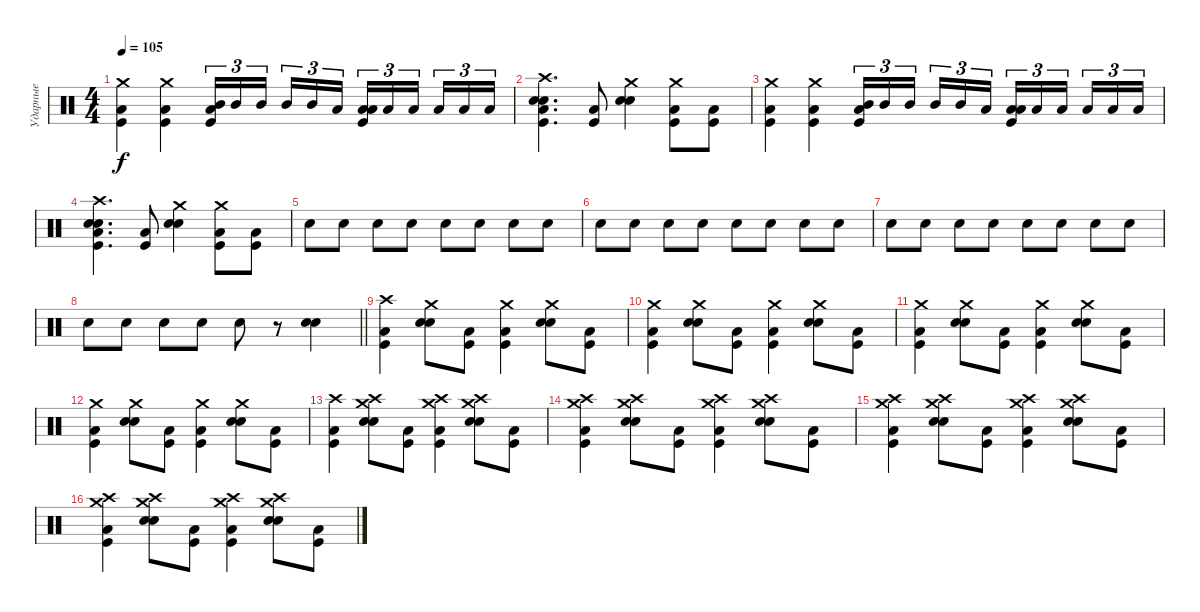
\track ("Ударные" "Ударные") {instrument percussion}
\staff {score}
\articulation defaults
\ts (4 4)
\tempo 105
\clef neutral
\ks c
("Crash medium (hit)" "Low Tom (hit)" "Kick (hit)").4{dy f} ("Crash medium (hit)" "Low Tom (hit)" "Kick (hit)").4 ("Mid Tom (hit)" "Low Tom (hit)" "Kick (hit)").16{tu (3 2)} "Mid Tom (hit)".16{tu (3 2)} "Mid Tom (hit)".16{tu (3 2) beam splitsecondary} "Mid Tom (hit)".16{tu (3 2)} "Mid Tom (hit)".16{tu (3 2)} "Low Tom (hit)".16{tu (3 2)} ("Low Tom (hit)" "Kick (hit)" "Low Tom (hit)").16{tu (3 2)} "Low Tom (hit)".16{tu (3 2)} "Low Tom (hit)".16{tu (3 2) beam splitsecondary} "Low Tom (hit)".16{tu (3 2)} "Low Tom (hit)".16{tu (3 2)} "Low Tom (hit)".16{tu (3 2)} |
("Crash high (hit)" "Electric Snare (hit)" "Snare (hit) 2" "Low Tom (hit)" "Kick (hit)").4{d} ("Low Tom (hit)" "Kick (hit)").8 ("Crash medium (hit)" "Electric Snare (hit)" "Snare (hit) 2").4 ("Crash medium (hit)" "Low Tom (hit)" "Kick (hit)").8 ("Low Tom (hit)" "Kick (hit)").8 |
("Crash medium (hit)" "Low Tom (hit)" "Kick (hit)").4 ("Crash medium (hit)" "Low Tom (hit)" "Kick (hit)").4 ("Mid Tom (hit)" "Low Tom (hit)" "Kick (hit)").16{tu (3 2)} "Mid Tom (hit)".16{tu (3 2)} "Mid Tom (hit)".16{tu (3 2) beam splitsecondary} "Mid Tom (hit)".16{tu (3 2)} "Mid Tom (hit)".16{tu (3 2)} "Low Tom (hit)".16{tu (3 2)} ("Low Tom (hit)" "Kick (hit)" "Low Tom (hit)").16{tu (3 2)} "Low Tom (hit)".16{tu (3 2)} "Low Tom (hit)".16{tu (3 2) beam splitsecondary} "Low Tom (hit)".16{tu (3 2)} "Low Tom (hit)".16{tu (3 2)} "Low Tom (hit)".16{tu (3 2)} |
("Crash high (hit)" "Electric Snare (hit)" "Snare (hit) 2" "Low Tom (hit)" "Kick (hit)").4{d} ("Low Tom (hit)" "Kick (hit)").8 ("Crash medium (hit)" "Electric Snare (hit)" "Snare (hit) 2").4 ("Crash medium (hit)" "Low Tom (hit)" "Kick (hit)").8 ("Low Tom (hit)" "Kick (hit)").8 |
"Snare (hit) 2".8{volume 9} "Snare (hit) 2".8{volume 16} "Snare (hit) 2".8 "Snare (hit) 2".8 "Snare (hit) 2".8 "Snare (hit) 2".8 "Snare (hit) 2".8 "Snare (hit) 2".8 |
"Snare (hit) 2".8 "Snare (hit) 2".8 "Snare (hit) 2".8 "Snare (hit) 2".8 "Snare (hit) 2".8 "Snare (hit) 2".8 "Snare (hit) 2".8 "Snare (hit) 2".8 |
"Snare (hit) 2".8 "Snare (hit) 2".8 "Snare (hit) 2".8 "Snare (hit) 2".8 "Snare (hit) 2".8 "Snare (hit) 2".8 "Snare (hit) 2".8 "Snare (hit) 2".8 |
\barLineRight lightlight "Snare (hit) 2".8 "Snare (hit) 2".8 "Snare (hit) 2".8 "Snare (hit) 2".8 "Snare (hit) 2".8
r.8 ("Electric Snare (hit)" "Snare (hit) 2").4 |
("Crash high (hit)" "Low Tom (hit)" "Kick (hit)").4 ("Crash medium (hit)" "Electric Snare (hit)" "Snare (hit) 2").8 ("Low Tom (hit)" "Kick (hit)").8 ("Crash medium (hit)" "Low Tom (hit)" "Kick (hit)").4 ("Crash medium (hit)" "Electric Snare (hit)" "Snare (hit) 2").8 ("Low Tom (hit)" "Kick (hit)").8 |
("Crash medium (hit)" "Low Tom (hit)" "Kick (hit)").4 ("Crash medium (hit)" "Electric Snare (hit)" "Snare (hit) 2").8 ("Low Tom (hit)" "Kick (hit)").8 ("Crash medium (hit)" "Low Tom (hit)" "Kick (hit)").4 ("Crash medium (hit)" "Electric Snare (hit)" "Snare (hit) 2").8 ("Low Tom (hit)" "Kick (hit)").8 |
("Crash medium (hit)" "Low Tom (hit)" "Kick (hit)").4 ("Crash medium (hit)" "Electric Snare (hit)" "Snare (hit) 2").8 ("Low Tom (hit)" "Kick (hit)").8 ("Crash medium (hit)" "Low Tom (hit)" "Kick (hit)").4 ("Crash medium (hit)" "Electric Snare (hit)" "Snare (hit) 2").8 ("Low Tom (hit)" "Kick (hit)").8 |
("Crash medium (hit)" "Low Tom (hit)" "Kick (hit)").4 ("Crash medium (hit)" "Electric Snare (hit)" "Snare (hit) 2").8 ("Low Tom (hit)" "Kick (hit)").8 ("Crash medium (hit)" "Low Tom (hit)" "Kick (hit)").4 ("Crash medium (hit)" "Electric Snare (hit)" "Snare (hit) 2").8 ("Low Tom (hit)" "Kick (hit)").8 |
("Crash high (hit)" "Low Tom (hit)" "Kick (hit)").4 ("Crash medium (hit)" "Electric Snare (hit)" "Snare (hit) 2" "Crash high (hit)").8 ("Low Tom (hit)" "Kick (hit)").8 ("Crash medium (hit)" "Low Tom (hit)" "Kick (hit)" "Crash high (hit)").4 ("Crash medium (hit)" "Electric Snare (hit)" "Snare (hit) 2" "Crash high (hit)").8 ("Low Tom (hit)" "Kick (hit)").8 |
("Crash medium (hit)" "Low Tom (hit)" "Kick (hit)" "Crash high (hit)").4 ("Crash medium (hit)" "Electric Snare (hit)" "Snare (hit) 2" "Crash high (hit)").8 ("Low Tom (hit)" "Kick (hit)").8 ("Crash medium (hit)" "Low Tom (hit)" "Kick (hit)" "Crash high (hit)").4 ("Crash medium (hit)" "Electric Snare (hit)" "Snare (hit) 2" "Crash high (hit)").8 ("Low Tom (hit)" "Kick (hit)").8 |
("Crash medium (hit)" "Low Tom (hit)" "Kick (hit)" "Crash high (hit)").4 ("Crash medium (hit)" "Electric Snare (hit)" "Snare (hit) 2" "Crash high (hit)").8 ("Low Tom (hit)" "Kick (hit)").8 ("Crash medium (hit)" "Low Tom (hit)" "Kick (hit)" "Crash high (hit)").4 ("Crash medium (hit)" "Electric Snare (hit)" "Snare (hit) 2" "Crash high (hit)").8 ("Low Tom (hit)" "Kick (hit)").8 |
("Crash medium (hit)" "Low Tom (hit)" "Kick (hit)" "Crash high (hit)").4 ("Crash medium (hit)" "Electric Snare (hit)" "Snare (hit) 2" "Crash high (hit)").8 ("Low Tom (hit)" "Kick (hit)").8 ("Crash medium (hit)" "Low Tom (hit)" "Kick (hit)" "Crash high (hit)").4 ("Crash medium (hit)" "Electric Snare (hit)" "Snare (hit) 2" "Crash high (hit)").8 ("Low Tom (hit)" "Kick (hit)").8
